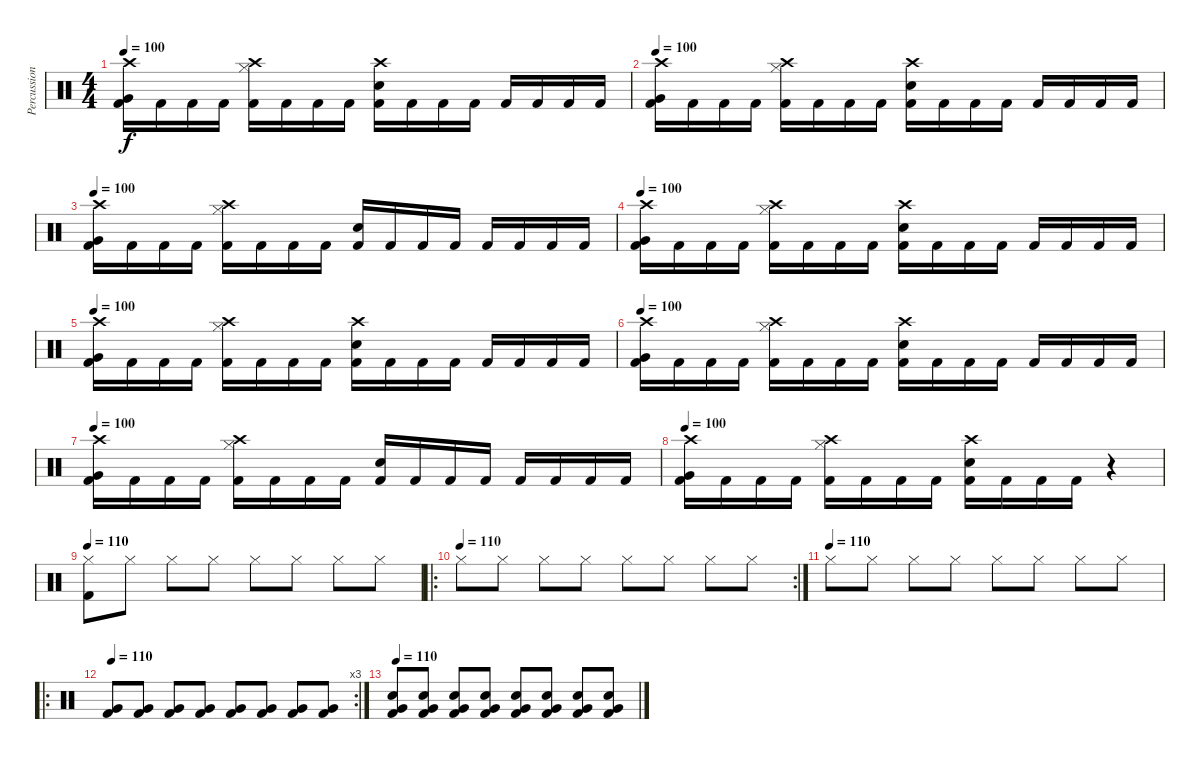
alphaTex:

\track ("Percussions" "Percussion") {instrument percussion}
\staff {score}
\articulation defaults
\ts (4 4)
\tempo 100
\clef neutral
\ks c
("Crash high (hit)" "Very Low Tom (hit)" "Kick (hit) 2").16{dy f} "Kick (hit) 2".16 "Kick (hit) 2".16 "Kick (hit) 2".16 ("Hi-Hat (closed)" "Crash high (hit)" "Kick (hit) 2").16 "Kick (hit) 2".16 "Kick (hit) 2".16 "Kick (hit) 2".16 ("Snare (hit) 2" "Crash high (hit)" "Kick (hit) 2").16 "Kick (hit) 2".16 "Kick (hit) 2".16 "Kick (hit) 2".16 "Kick (hit) 2".16 "Kick (hit) 2".16 "Kick (hit) 2".16 "Kick (hit) 2".16 |
\tempo 100
("Crash high (hit)" "Very Low Tom (hit)" "Kick (hit) 2").16 "Kick (hit) 2".16 "Kick (hit) 2".16 "Kick (hit) 2".16 ("Hi-Hat (closed)" "Crash high (hit)" "Kick (hit) 2").16 "Kick (hit) 2".16 "Kick (hit) 2".16 "Kick (hit) 2".16 ("Snare (hit) 2" "Crash high (hit)" "Kick (hit) 2").16 "Kick (hit) 2".16 "Kick (hit) 2".16 "Kick (hit) 2".16 "Kick (hit) 2".16 "Kick (hit) 2".16 "Kick (hit) 2".16 "Kick (hit) 2".16 |
\tempo 100
("Crash high (hit)" "Very Low Tom (hit)" "Kick (hit) 2").16 "Kick (hit) 2".16 "Kick (hit) 2".16 "Kick (hit) 2".16 ("Hi-Hat (closed)" "Crash high (hit)" "Kick (hit) 2").16 "Kick (hit) 2".16 "Kick (hit) 2".16 "Kick (hit) 2".16 ("Snare (hit) 2" "Kick (hit) 2").16 "Kick (hit) 2".16 "Kick (hit) 2".16 "Kick (hit) 2".16 "Kick (hit) 2".16 "Kick (hit) 2".16 "Kick (hit) 2".16 "Kick (hit) 2".16 |
\tempo 100
("Crash high (hit)" "Very Low Tom (hit)" "Kick (hit) 2").16 "Kick (hit) 2".16 "Kick (hit) 2".16 "Kick (hit) 2".16 ("Hi-Hat (closed)" "Crash high (hit)" "Kick (hit) 2").16 "Kick (hit) 2".16 "Kick (hit) 2".16 "Kick (hit) 2".16 ("Snare (hit) 2" "Crash high (hit)" "Kick (hit) 2").16 "Kick (hit) 2".16 "Kick (hit) 2".16 "Kick (hit) 2".16 "Kick (hit) 2".16 "Kick (hit) 2".16 "Kick (hit) 2".16 "Kick (hit) 2".16 |
\tempo 100
("Crash high (hit)" "Very Low Tom (hit)" "Kick (hit) 2").16 "Kick (hit) 2".16 "Kick (hit) 2".16 "Kick (hit) 2".16 ("Hi-Hat (closed)" "Crash high (hit)" "Kick (hit) 2").16 "Kick (hit) 2".16 "Kick (hit) 2".16 "Kick (hit) 2".16 ("Snare (hit) 2" "Crash high (hit)" "Kick (hit) 2").16 "Kick (hit) 2".16 "Kick (hit) 2".16 "Kick (hit) 2".16 "Kick (hit) 2".16 "Kick (hit) 2".16 "Kick (hit) 2".16 "Kick (hit) 2".16 |
\tempo 100
("Crash high (hit)" "Very Low Tom (hit)" "Kick (hit) 2").16 "Kick (hit) 2".16 "Kick (hit) 2".16 "Kick (hit) 2".16 ("Hi-Hat (closed)" "Crash high (hit)" "Kick (hit) 2").16 "Kick (hit) 2".16 "Kick (hit) 2".16 "Kick (hit) 2".16 ("Snare (hit) 2" "Crash high (hit)" "Kick (hit) 2").16 "Kick (hit) 2".16 "Kick (hit) 2".16 "Kick (hit) 2".16 "Kick (hit) 2".16 "Kick (hit) 2".16 "Kick (hit) 2".16 "Kick (hit) 2".16 |
\tempo 100
("Crash high (hit)" "Very Low Tom (hit)" "Kick (hit) 2").16 "Kick (hit) 2".16 "Kick (hit) 2".16 "Kick (hit) 2".16 ("Hi-Hat (closed)" "Crash high (hit)" "Kick (hit) 2").16 "Kick (hit) 2".16 "Kick (hit) 2".16 "Kick (hit) 2".16 ("Snare (hit) 2" "Kick (hit) 2").16 "Kick (hit) 2".16 "Kick (hit) 2".16 "Kick (hit) 2".16 "Kick (hit) 2".16 "Kick (hit) 2".16 "Kick (hit) 2".16 "Kick (hit) 2".16 |
\tempo 100
("Crash high (hit)" "Very Low Tom (hit)" "Kick (hit) 2").16 "Kick (hit) 2".16 "Kick (hit) 2".16 "Kick (hit) 2".16 ("Hi-Hat (closed)" "Crash high (hit)" "Kick (hit) 2").16 "Kick (hit) 2".16 "Kick (hit) 2".16 "Kick (hit) 2".16 ("Snare (hit) 2" "Crash high (hit)" "Kick (hit) 2").16 "Kick (hit) 2".16 "Kick (hit) 2".16 "Kick (hit) 2".16 r.4 |
\tempo 110
("Hi-Hat (closed)" "Kick (hit) 2").8 "Hi-Hat (closed)".8 "Hi-Hat (closed)".8 "Hi-Hat (closed)".8 "Hi-Hat (closed)".8 "Hi-Hat (closed)".8 "Hi-Hat (closed)".8 "Hi-Hat (closed)".8 |
\ro
\rc 2
\tempo (110)
"Hi-Hat (closed)".8 "Hi-Hat (closed)".8 "Hi-Hat (closed)".8 "Hi-Hat (closed)".8 "Hi-Hat (closed)".8 "Hi-Hat (closed)".8 "Hi-Hat (closed)".8 "Hi-Hat (closed)".8 |
\tempo (110)
"Hi-Hat (closed)".8 "Hi-Hat (closed)".8 "Hi-Hat (closed)".8 "Hi-Hat (closed)".8 "Hi-Hat (closed)".8 "Hi-Hat (closed)".8 "Hi-Hat (closed)".8 "Hi-Hat (closed)".8 |
\ro
\rc 3
\tempo 110
("Very Low Tom (hit)" "Kick (hit) 2").8 ("Very Low Tom (hit)" "Kick (hit) 2").8 ("Very Low Tom (hit)" "Kick (hit) 2").8 ("Very Low Tom (hit)" "Kick (hit) 2").8 ("Very Low Tom (hit)" "Kick (hit) 2").8 ("Very Low Tom (hit)" "Kick (hit) 2").8 ("Very Low Tom (hit)" "Kick (hit) 2").8 ("Very Low Tom (hit)" "Kick (hit) 2").8 |
\tempo 110
("Snare (hit) 2" "Very Low Tom (hit)" "Kick (hit) 2").8 ("Snare (hit) 2" "Very Low Tom (hit)" "Kick (hit) 2").8 ("Snare (hit) 2" "Very Low Tom (hit)" "Kick (hit) 2").8 ("Snare (hit) 2" "Very Low Tom (hit)" "Kick (hit) 2").8 ("Snare (hit) 2" "Very Low Tom (hit)" "Kick (hit) 2").8 ("Snare (hit) 2" "Very Low Tom (hit)" "Kick (hit) 2").8 ("Snare (hit) 2" "Very Low Tom (hit)" "Kick (hit) 2").8 ("Snare (hit) 2" "Very Low Tom (hit)" "Kick (hit) 2").8
